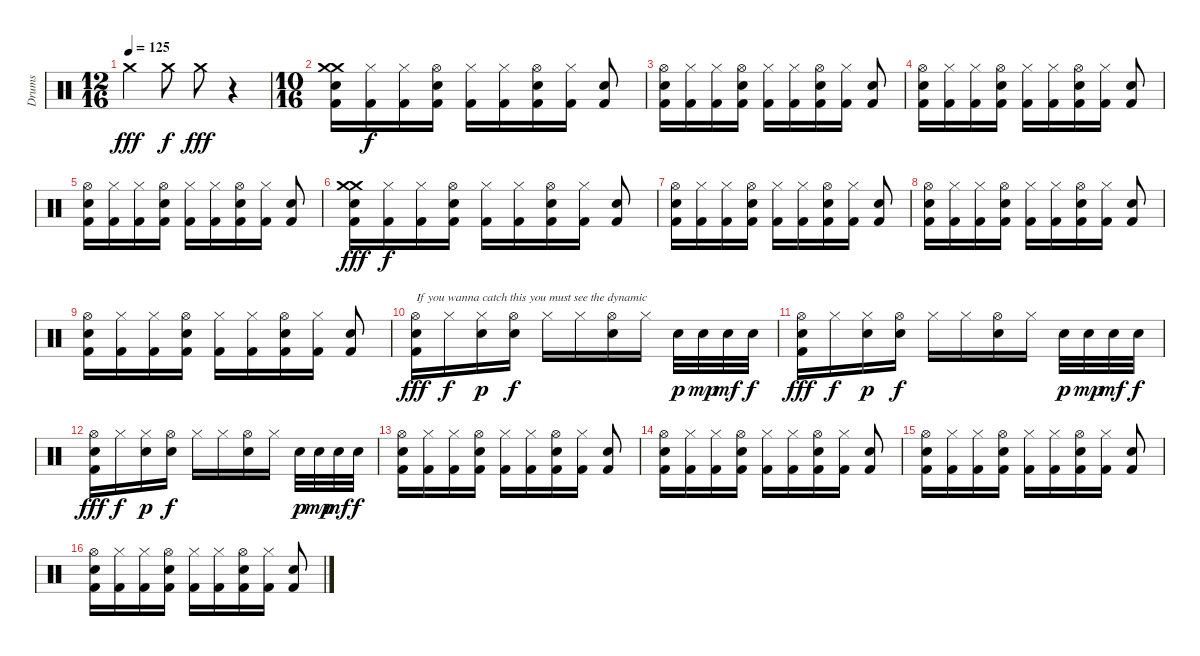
\track ("Drums" "Drums") {instrument percussion}
\staff {score}
\articulation defaults
\ts (12 16)
\tempo 125
\clef neutral
\ks c "Crash medium (hit)".4{dy fff} "Crash medium (hit)".8{dy f} "Crash medium (hit)".8{dy fff}
r.4 |
\ts (10 16)
("Kick (hit) 2" "Electric Snare (hit)" "Crash medium (hit)" "Crash medium (hit)").16 ("Kick (hit) 2" "Hi-Hat (closed)").16{dy f} ("Kick (hit) 2" "Hi-Hat (closed)").16 ("Kick (hit) 2" "Electric Snare (hit)" "Hi-Hat (open)").16 ("Kick (hit) 2" "Hi-Hat (closed)").16 ("Kick (hit) 2" "Hi-Hat (closed)").16 ("Kick (hit) 2" "Electric Snare (hit)" "Hi-Hat (open)").16 ("Kick (hit) 2" "Hi-Hat (closed)").16 ("Kick (hit) 2" "Electric Snare (hit)").8 |
("Kick (hit) 2" "Electric Snare (hit)" "Hi-Hat (open)").16 ("Kick (hit) 2" "Hi-Hat (closed)").16 ("Kick (hit) 2" "Hi-Hat (closed)").16 ("Kick (hit) 2" "Electric Snare (hit)" "Hi-Hat (open)").16 ("Kick (hit) 2" "Hi-Hat (closed)").16 ("Kick (hit) 2" "Hi-Hat (closed)").16 ("Kick (hit) 2" "Electric Snare (hit)" "Hi-Hat (open)").16 ("Kick (hit) 2" "Hi-Hat (closed)").16 ("Kick (hit) 2" "Electric Snare (hit)").8 |
("Kick (hit) 2" "Electric Snare (hit)" "Hi-Hat (open)").16 ("Kick (hit) 2" "Hi-Hat (closed)").16 ("Kick (hit) 2" "Hi-Hat (closed)").16 ("Kick (hit) 2" "Electric Snare (hit)" "Hi-Hat (open)").16 ("Kick (hit) 2" "Hi-Hat (closed)").16 ("Kick (hit) 2" "Hi-Hat (closed)").16 ("Kick (hit) 2" "Electric Snare (hit)" "Hi-Hat (open)").16 ("Kick (hit) 2" "Hi-Hat (closed)").16 ("Kick (hit) 2" "Electric Snare (hit)").8 |
("Kick (hit) 2" "Electric Snare (hit)" "Hi-Hat (open)").16 ("Kick (hit) 2" "Hi-Hat (closed)").16 ("Kick (hit) 2" "Hi-Hat (closed)").16 ("Kick (hit) 2" "Electric Snare (hit)" "Hi-Hat (open)").16 ("Kick (hit) 2" "Hi-Hat (closed)").16 ("Kick (hit) 2" "Hi-Hat (closed)").16 ("Kick (hit) 2" "Electric Snare (hit)" "Hi-Hat (open)").16 ("Kick (hit) 2" "Hi-Hat (closed)").16 ("Kick (hit) 2" "Electric Snare (hit)").8 |
("Kick (hit) 2" "Electric Snare (hit)" "Crash medium (hit)" "Crash medium (hit)").16{dy fff} ("Kick (hit) 2" "Hi-Hat (closed)").16{dy f} ("Kick (hit) 2" "Hi-Hat (closed)").16 ("Kick (hit) 2" "Electric Snare (hit)" "Hi-Hat (open)").16 ("Kick (hit) 2" "Hi-Hat (closed)").16 ("Kick (hit) 2" "Hi-Hat (closed)").16 ("Kick (hit) 2" "Electric Snare (hit)" "Hi-Hat (open)").16 ("Kick (hit) 2" "Hi-Hat (closed)").16 ("Kick (hit) 2" "Electric Snare (hit)").8 |
("Kick (hit) 2" "Electric Snare (hit)" "Hi-Hat (open)").16 ("Kick (hit) 2" "Hi-Hat (closed)").16 ("Kick (hit) 2" "Hi-Hat (closed)").16 ("Kick (hit) 2" "Electric Snare (hit)" "Hi-Hat (open)").16 ("Kick (hit) 2" "Hi-Hat (closed)").16 ("Kick (hit) 2" "Hi-Hat (closed)").16 ("Kick (hit) 2" "Electric Snare (hit)" "Hi-Hat (open)").16 ("Kick (hit) 2" "Hi-Hat (closed)").16 ("Kick (hit) 2" "Electric Snare (hit)").8 |
("Kick (hit) 2" "Electric Snare (hit)" "Hi-Hat (open)").16 ("Kick (hit) 2" "Hi-Hat (closed)").16 ("Kick (hit) 2" "Hi-Hat (closed)").16 ("Kick (hit) 2" "Electric Snare (hit)" "Hi-Hat (open)").16 ("Kick (hit) 2" "Hi-Hat (closed)").16 ("Kick (hit) 2" "Hi-Hat (closed)").16 ("Kick (hit) 2" "Electric Snare (hit)" "Hi-Hat (open)").16 ("Kick (hit) 2" "Hi-Hat (closed)").16 ("Kick (hit) 2" "Electric Snare (hit)").8 |
("Kick (hit) 2" "Electric Snare (hit)" "Hi-Hat (open)").16 ("Kick (hit) 2" "Hi-Hat (closed)").16 ("Kick (hit) 2" "Hi-Hat (closed)").16 ("Kick (hit) 2" "Electric Snare (hit)" "Hi-Hat (open)").16 ("Kick (hit) 2" "Hi-Hat (closed)").16 ("Kick (hit) 2" "Hi-Hat (closed)").16 ("Kick (hit) 2" "Electric Snare (hit)" "Hi-Hat (open)").16 ("Kick (hit) 2" "Hi-Hat (closed)").16 ("Kick (hit) 2" "Electric Snare (hit)").8 |
("Kick (hit) 2" "Snare (hit) 2" "Hi-Hat (open)").16{txt "If you wanna catch this you must see the dynamic" dy fff balance 0} "Hi-Hat (closed)".16{dy f} ("Electric Snare (hit)" "Hi-Hat (closed)").16{dy p} ("Electric Snare (hit)" "Hi-Hat (open)").16{dy f} "Hi-Hat (closed)".16 "Hi-Hat (closed)".16 ("Electric Snare (hit)" "Hi-Hat (open)").16 "Hi-Hat (closed)".16 "Electric Snare (hit)".32{dy p} "Electric Snare (hit)".32{dy mp} "Electric Snare (hit)".32{dy mf} "Electric Snare (hit)".32{dy f} |
("Kick (hit) 2" "Snare (hit) 2" "Hi-Hat (open)").16{dy fff} "Hi-Hat (closed)".16{dy f} ("Electric Snare (hit)" "Hi-Hat (closed)").16{dy p} ("Electric Snare (hit)" "Hi-Hat (open)").16{dy f} "Hi-Hat (closed)".16 "Hi-Hat (closed)".16 ("Electric Snare (hit)" "Hi-Hat (open)").16 "Hi-Hat (closed)".16 "Electric Snare (hit)".32{dy p} "Electric Snare (hit)".32{dy mp} "Electric Snare (hit)".32{dy mf} "Electric Snare (hit)".32{dy f} |
("Kick (hit) 2" "Snare (hit) 2" "Hi-Hat (open)").16{dy fff} "Hi-Hat (closed)".16{dy f} ("Electric Snare (hit)" "Hi-Hat (closed)").16{dy p} ("Electric Snare (hit)" "Hi-Hat (open)").16{dy f} "Hi-Hat (closed)".16 "Hi-Hat (closed)".16 ("Electric Snare (hit)" "Hi-Hat (open)").16 "Hi-Hat (closed)".16 "Electric Snare (hit)".32{dy p} "Electric Snare (hit)".32{dy mp} "Electric Snare (hit)".32{dy mf} "Electric Snare (hit)".32{dy f} |
("Kick (hit) 2" "Electric Snare (hit)" "Hi-Hat (open)").16{balance 8} ("Kick (hit) 2" "Hi-Hat (closed)").16 ("Kick (hit) 2" "Hi-Hat (closed)").16 ("Kick (hit) 2" "Electric Snare (hit)" "Hi-Hat (open)").16 ("Kick (hit) 2" "Hi-Hat (closed)").16 ("Kick (hit) 2" "Hi-Hat (closed)").16 ("Kick (hit) 2" "Electric Snare (hit)" "Hi-Hat (open)").16 ("Kick (hit) 2" "Hi-Hat (closed)").16 ("Kick (hit) 2" "Electric Snare (hit)").8 |
("Kick (hit) 2" "Electric Snare (hit)" "Hi-Hat (open)").16 ("Kick (hit) 2" "Hi-Hat (closed)").16 ("Kick (hit) 2" "Hi-Hat (closed)").16 ("Kick (hit) 2" "Electric Snare (hit)" "Hi-Hat (open)").16 ("Kick (hit) 2" "Hi-Hat (closed)").16 ("Kick (hit) 2" "Hi-Hat (closed)").16 ("Kick (hit) 2" "Electric Snare (hit)" "Hi-Hat (open)").16 ("Kick (hit) 2" "Hi-Hat (closed)").16 ("Kick (hit) 2" "Electric Snare (hit)").8 |
("Kick (hit) 2" "Electric Snare (hit)" "Hi-Hat (open)").16 ("Kick (hit) 2" "Hi-Hat (closed)").16 ("Kick (hit) 2" "Hi-Hat (closed)").16 ("Kick (hit) 2" "Electric Snare (hit)" "Hi-Hat (open)").16 ("Kick (hit) 2" "Hi-Hat (closed)").16 ("Kick (hit) 2" "Hi-Hat (closed)").16 ("Kick (hit) 2" "Electric Snare (hit)" "Hi-Hat (open)").16 ("Kick (hit) 2" "Hi-Hat (closed)").16 ("Kick (hit) 2" "Electric Snare (hit)").8 |
("Kick (hit) 2" "Electric Snare (hit)" "Hi-Hat (open)").16 ("Kick (hit) 2" "Hi-Hat (closed)").16 ("Kick (hit) 2" "Hi-Hat (closed)").16 ("Kick (hit) 2" "Electric Snare (hit)" "Hi-Hat (open)").16 ("Kick (hit) 2" "Hi-Hat (closed)").16 ("Kick (hit) 2" "Hi-Hat (closed)").16 ("Kick (hit) 2" "Electric Snare (hit)" "Hi-Hat (open)").16 ("Kick (hit) 2" "Hi-Hat (closed)").16 ("Kick (hit) 2" "Electric Snare (hit)").8
